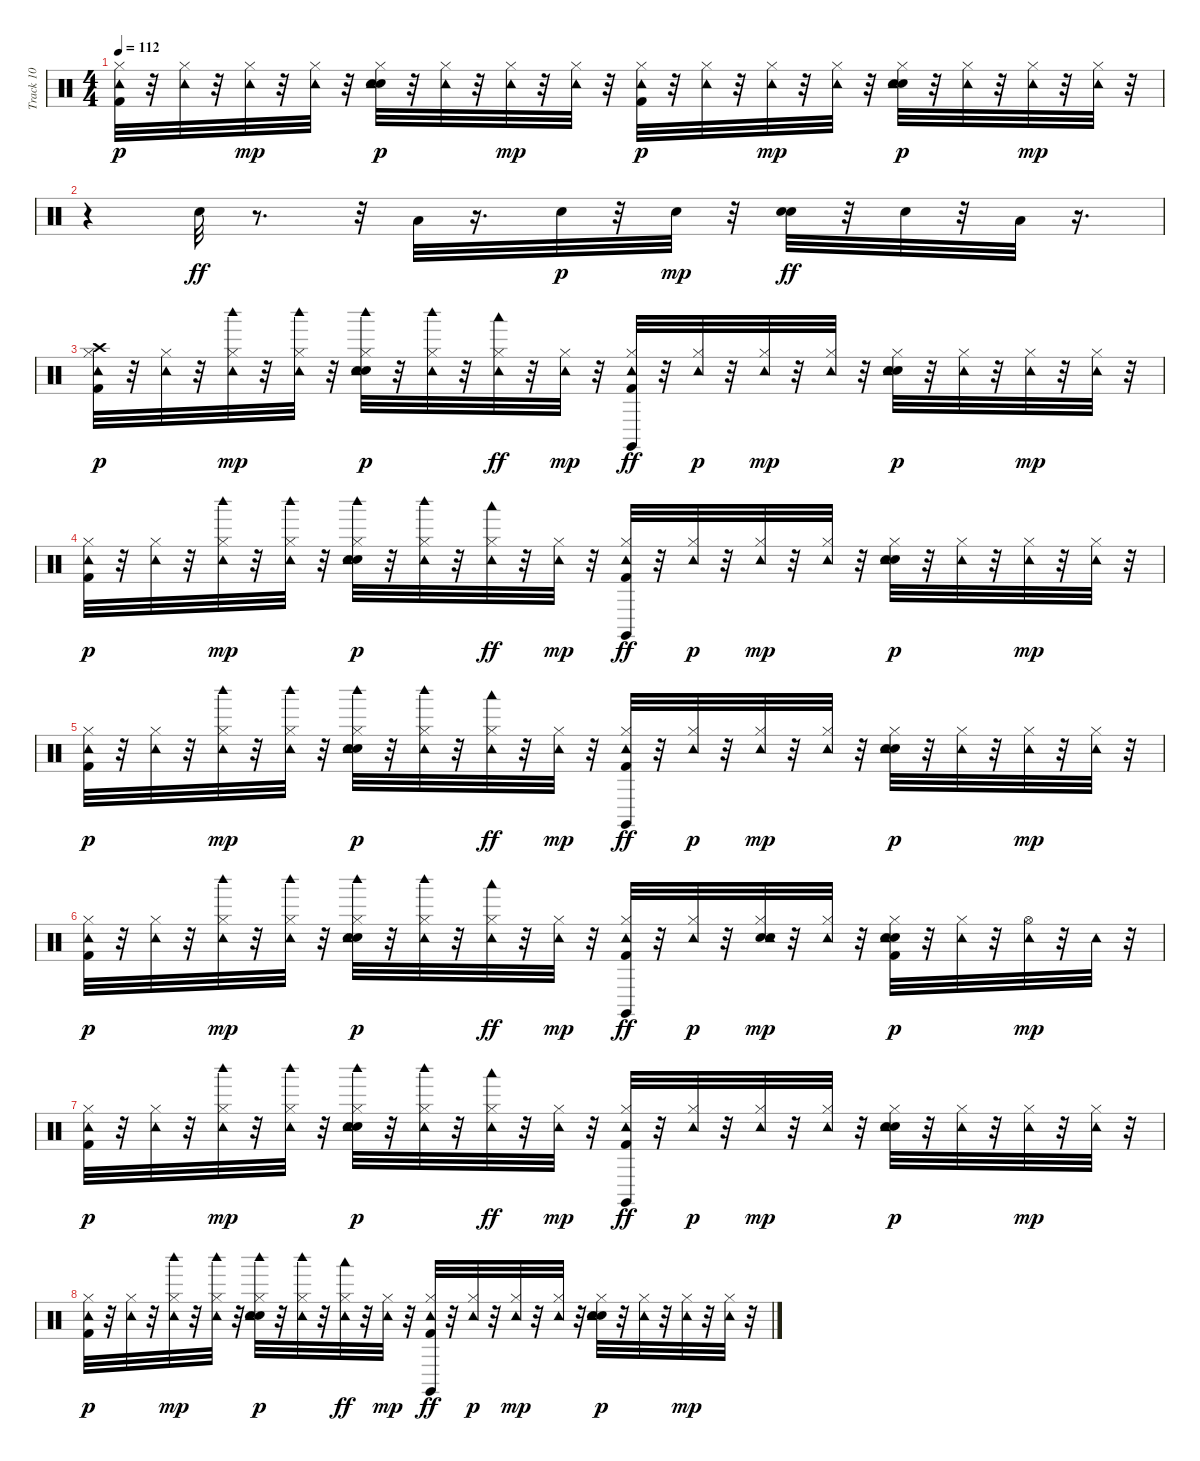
\track ("Track 10" "Track 10") {instrument percussion}
\staff {score}
\articulation defaults
\ts (4 4)
\tempo 112
\clef neutral
\ks c
("Kick (hit) 2" "Hi-Hat (closed)" "Tambourine (hit)").32{dy p} r.32 ("Hi-Hat (closed)" "Tambourine (hit)").32 r.32 ("Hi-Hat (closed)" "Tambourine (hit)").32{dy mp} r.32 ("Hi-Hat (closed)" "Tambourine (hit)").32 r.32 ("Hand Clap (hit)" "Electric Snare (hit)" "Hi-Hat (closed)" "Tambourine (hit)").32{dy p} r.32 ("Hi-Hat (closed)" "Tambourine (hit)").32 r.32 ("Hi-Hat (closed)" "Tambourine (hit)").32{dy mp} r.32 ("Hi-Hat (closed)" "Tambourine (hit)").32 r.32 ("Kick (hit) 2" "Hi-Hat (closed)" "Tambourine (hit)").32{dy p} r.32 ("Hi-Hat (closed)" "Tambourine (hit)").32 r.32 ("Hi-Hat (closed)" "Tambourine (hit)").32{dy mp} r.32 ("Hi-Hat (closed)" "Tambourine (hit)").32 r.32 ("Hand Clap (hit)" "Electric Snare (hit)" "Hi-Hat (closed)" "Tambourine (hit)").32{dy p} r.32 ("Hi-Hat (closed)" "Tambourine (hit)").32 r.32 ("Hi-Hat (closed)" "Tambourine (hit)").32{dy mp} r.32 ("Hi-Hat (closed)" "Tambourine (hit)").32 r.32 |
r.4 "Hand Clap (hit)".32{dy ff} r.8{d} r.32 "Low Floor Tom (hit)".32 r.16{d} "Electric Snare (hit)".32{dy p} r.32 "Electric Snare (hit)".32{dy mp} r.32 ("Hand Clap (hit)" "Electric Snare (hit)").32{dy ff} r.32 "Electric Snare (hit)".32 r.32 "Low Floor Tom (hit)".32 r.16{d} |
("Kick (hit) 2" "Hi-Hat (closed)" "Crash high (hit)" "Tambourine (hit)").32{dy p} r.32 ("Hi-Hat (closed)" "Tambourine (hit)").32 r.32 ("Hi-Hat (closed)" "Tambourine (hit)" "Woodblock high (hit)").32{dy mp} r.32 ("Hi-Hat (closed)" "Tambourine (hit)" "Woodblock high (hit)").32 r.32 ("Hand Clap (hit)" "Electric Snare (hit)" "Hi-Hat (closed)" "Tambourine (hit)" "Woodblock high (hit)").32{dy p} r.32 ("Hi-Hat (closed)" "Tambourine (hit)" "Woodblock high (hit)").32 r.32 ("Hi-Hat (closed)" "Tambourine (hit)" "Woodblock low (hit)").32{dy ff} r.32 ("Hi-Hat (closed)" "Tambourine (hit)").32{dy mp} r.32 ("Kick (hit) 2" "Hi-Hat (closed)" "Tambourine (hit)" "Claves (hit)").32{dy ff} r.32 ("Hi-Hat (closed)" "Tambourine (hit)").32{dy p} r.32 ("Hi-Hat (closed)" "Tambourine (hit)").32{dy mp} r.32 ("Hi-Hat (closed)" "Tambourine (hit)").32 r.32 ("Hand Clap (hit)" "Electric Snare (hit)" "Hi-Hat (closed)" "Tambourine (hit)").32{dy p} r.32 ("Hi-Hat (closed)" "Tambourine (hit)").32 r.32 ("Hi-Hat (closed)" "Tambourine (hit)").32{dy mp} r.32 ("Hi-Hat (closed)" "Tambourine (hit)").32 r.32 |
("Kick (hit) 2" "Hi-Hat (closed)" "Tambourine (hit)").32{dy p} r.32 ("Hi-Hat (closed)" "Tambourine (hit)").32 r.32 ("Hi-Hat (closed)" "Tambourine (hit)" "Woodblock high (hit)").32{dy mp} r.32 ("Hi-Hat (closed)" "Tambourine (hit)" "Woodblock high (hit)").32 r.32 ("Hand Clap (hit)" "Electric Snare (hit)" "Hi-Hat (closed)" "Tambourine (hit)" "Woodblock high (hit)").32{dy p} r.32 ("Hi-Hat (closed)" "Tambourine (hit)" "Woodblock high (hit)").32 r.32 ("Hi-Hat (closed)" "Tambourine (hit)" "Woodblock low (hit)").32{dy ff} r.32 ("Hi-Hat (closed)" "Tambourine (hit)").32{dy mp} r.32 ("Kick (hit) 2" "Hi-Hat (closed)" "Tambourine (hit)" "Claves (hit)").32{dy ff} r.32 ("Hi-Hat (closed)" "Tambourine (hit)").32{dy p} r.32 ("Hi-Hat (closed)" "Tambourine (hit)").32{dy mp} r.32 ("Hi-Hat (closed)" "Tambourine (hit)").32 r.32 ("Hand Clap (hit)" "Electric Snare (hit)" "Hi-Hat (closed)" "Tambourine (hit)").32{dy p} r.32 ("Hi-Hat (closed)" "Tambourine (hit)").32 r.32 ("Hi-Hat (closed)" "Tambourine (hit)").32{dy mp} r.32 ("Hi-Hat (closed)" "Tambourine (hit)").32 r.32 |
("Kick (hit) 2" "Hi-Hat (closed)" "Tambourine (hit)").32{dy p} r.32 ("Hi-Hat (closed)" "Tambourine (hit)").32 r.32 ("Hi-Hat (closed)" "Tambourine (hit)" "Woodblock high (hit)").32{dy mp} r.32 ("Hi-Hat (closed)" "Tambourine (hit)" "Woodblock high (hit)").32 r.32 ("Hand Clap (hit)" "Electric Snare (hit)" "Hi-Hat (closed)" "Tambourine (hit)" "Woodblock high (hit)").32{dy p} r.32 ("Hi-Hat (closed)" "Tambourine (hit)" "Woodblock high (hit)").32 r.32 ("Hi-Hat (closed)" "Tambourine (hit)" "Woodblock low (hit)").32{dy ff} r.32 ("Hi-Hat (closed)" "Tambourine (hit)").32{dy mp} r.32 ("Kick (hit) 2" "Hi-Hat (closed)" "Tambourine (hit)" "Claves (hit)").32{dy ff} r.32 ("Hi-Hat (closed)" "Tambourine (hit)").32{dy p} r.32 ("Hi-Hat (closed)" "Tambourine (hit)").32{dy mp} r.32 ("Hi-Hat (closed)" "Tambourine (hit)").32 r.32 ("Hand Clap (hit)" "Electric Snare (hit)" "Hi-Hat (closed)" "Tambourine (hit)").32{dy p} r.32 ("Hi-Hat (closed)" "Tambourine (hit)").32 r.32 ("Hi-Hat (closed)" "Tambourine (hit)").32{dy mp} r.32 ("Hi-Hat (closed)" "Tambourine (hit)").32 r.32 |
("Kick (hit) 2" "Hi-Hat (closed)" "Tambourine (hit)").32{dy p} r.32 ("Hi-Hat (closed)" "Tambourine (hit)").32 r.32 ("Hi-Hat (closed)" "Tambourine (hit)" "Woodblock high (hit)").32{dy mp} r.32 ("Hi-Hat (closed)" "Tambourine (hit)" "Woodblock high (hit)").32 r.32 ("Hand Clap (hit)" "Electric Snare (hit)" "Hi-Hat (closed)" "Tambourine (hit)" "Woodblock high (hit)").32{dy p} r.32 ("Hi-Hat (closed)" "Tambourine (hit)" "Woodblock high (hit)").32 r.32 ("Hi-Hat (closed)" "Tambourine (hit)" "Woodblock low (hit)").32{dy ff} r.32 ("Hi-Hat (closed)" "Tambourine (hit)").32{dy mp} r.32 ("Kick (hit) 2" "Hi-Hat (closed)" "Tambourine (hit)" "Claves (hit)").32{dy ff} r.32 ("Hi-Hat (closed)" "Tambourine (hit)").32{dy p} r.32 ("Hand Clap (hit)" "Electric Snare (hit)" "Hi-Hat (closed)" "Tambourine (hit)").32{dy mp} r.32 ("Hi-Hat (closed)" "Tambourine (hit)").32 r.32 ("Kick (hit) 2" "Hand Clap (hit)" "Electric Snare (hit)" "Hi-Hat (closed)" "Tambourine (hit)").32{dy p} r.32 ("Hi-Hat (closed)" "Tambourine (hit)").32 r.32 ("Hi-Hat (open)" "Tambourine (hit)").32{dy mp} r.32 "Tambourine (hit)".32 r.32 |
("Kick (hit) 2" "Hi-Hat (closed)" "Tambourine (hit)").32{dy p} r.32 ("Hi-Hat (closed)" "Tambourine (hit)").32 r.32 ("Hi-Hat (closed)" "Tambourine (hit)" "Woodblock high (hit)").32{dy mp} r.32 ("Hi-Hat (closed)" "Tambourine (hit)" "Woodblock high (hit)").32 r.32 ("Hand Clap (hit)" "Electric Snare (hit)" "Hi-Hat (closed)" "Tambourine (hit)" "Woodblock high (hit)").32{dy p} r.32 ("Hi-Hat (closed)" "Tambourine (hit)" "Woodblock high (hit)").32 r.32 ("Hi-Hat (closed)" "Tambourine (hit)" "Woodblock low (hit)").32{dy ff} r.32 ("Hi-Hat (closed)" "Tambourine (hit)").32{dy mp} r.32 ("Kick (hit) 2" "Hi-Hat (closed)" "Tambourine (hit)" "Claves (hit)").32{dy ff} r.32 ("Hi-Hat (closed)" "Tambourine (hit)").32{dy p} r.32 ("Hi-Hat (closed)" "Tambourine (hit)").32{dy mp} r.32 ("Hi-Hat (closed)" "Tambourine (hit)").32 r.32 ("Hand Clap (hit)" "Electric Snare (hit)" "Hi-Hat (closed)" "Tambourine (hit)").32{dy p} r.32 ("Hi-Hat (closed)" "Tambourine (hit)").32 r.32 ("Hi-Hat (closed)" "Tambourine (hit)").32{dy mp} r.32 ("Hi-Hat (closed)" "Tambourine (hit)").32 r.32 |
("Kick (hit) 2" "Hi-Hat (closed)" "Tambourine (hit)").32{dy p} r.32 ("Hi-Hat (closed)" "Tambourine (hit)").32 r.32 ("Hi-Hat (closed)" "Tambourine (hit)" "Woodblock high (hit)").32{dy mp} r.32 ("Hi-Hat (closed)" "Tambourine (hit)" "Woodblock high (hit)").32 r.32 ("Hand Clap (hit)" "Electric Snare (hit)" "Hi-Hat (closed)" "Tambourine (hit)" "Woodblock high (hit)").32{dy p} r.32 ("Hi-Hat (closed)" "Tambourine (hit)" "Woodblock high (hit)").32 r.32 ("Hi-Hat (closed)" "Tambourine (hit)" "Woodblock low (hit)").32{dy ff} r.32 ("Hi-Hat (closed)" "Tambourine (hit)").32{dy mp} r.32 ("Kick (hit) 2" "Hi-Hat (closed)" "Tambourine (hit)" "Claves (hit)").32{dy ff} r.32 ("Hi-Hat (closed)" "Tambourine (hit)").32{dy p} r.32 ("Hi-Hat (closed)" "Tambourine (hit)").32{dy mp} r.32 ("Hi-Hat (closed)" "Tambourine (hit)").32 r.32 ("Hand Clap (hit)" "Electric Snare (hit)" "Hi-Hat (closed)" "Tambourine (hit)").32{dy p} r.32 ("Hi-Hat (closed)" "Tambourine (hit)").32 r.32 ("Hi-Hat (closed)" "Tambourine (hit)").32{dy mp} r.32 ("Hi-Hat (closed)" "Tambourine (hit)").32 r.32
